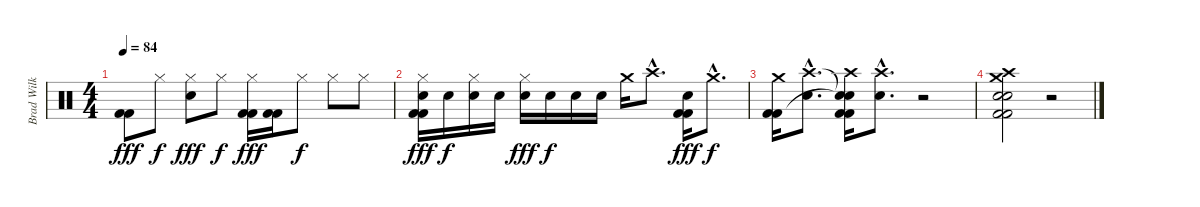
\track ("Brad Wilk" "Brad Wilk") {instrument percussion}
\staff {score}
\articulation defaults
\ts (4 4)
\tempo 84
\clef neutral
\ks c
("Kick (hit) 2" "Kick (hit) 2").8{dy fff} "Hi-Hat (closed)".8{dy f} ("Hi-Hat (closed)" "Snare (hit) 2").8{dy fff} "Hi-Hat (closed)".8{dy f} ("Hi-Hat (closed)" "Kick (hit) 2" "Kick (hit) 2").16{dy fff} ("Kick (hit) 2" "Kick (hit) 2").16 "Hi-Hat (closed)".8{dy f} "Hi-Hat (closed)".8 "Hi-Hat (closed)".8 |
("Hi-Hat (closed)" "Snare (hit) 2" "Kick (hit) 2" "Kick (hit) 2").16{dy fff} "Snare (hit) 2".16{dy f} ("Hi-Hat (closed)" "Snare (hit) 2").16 "Snare (hit) 2".16 ("Hi-Hat (closed)" "Snare (hit) 2").16{dy fff} "Snare (hit) 2".16{dy f} "Snare (hit) 2".16 "Snare (hit) 2".16 "Crash medium (hit)".16 "Crash high (hit)"{hac}.8{d} ("Electric Snare (hit)" "Kick (hit) 2" "Kick (hit) 2").16{dy fff} "Crash medium (hit)"{hac}.8{d dy f} |
("Crash medium (hit)" "Kick (hit) 2" "Kick (hit) 2").16 ("Snare (hit) 2"{hac} "Crash high (hit)"{hac}).8{d} ("Crash high (hit)" "Snare (hit) 2"{t} "Snare (hit)"{t} "Kick (hit) 2" "Kick (hit) 2").16 ("Snare (hit) 2"{hac} "Crash high (hit)"{hac}).8{d} r.2 |
("Crash medium (hit)" "Crash high (hit)" "Snare (hit) 2" "Snare (hit) 2" "Kick (hit) 2" "Kick (hit) 2").2 r.2
